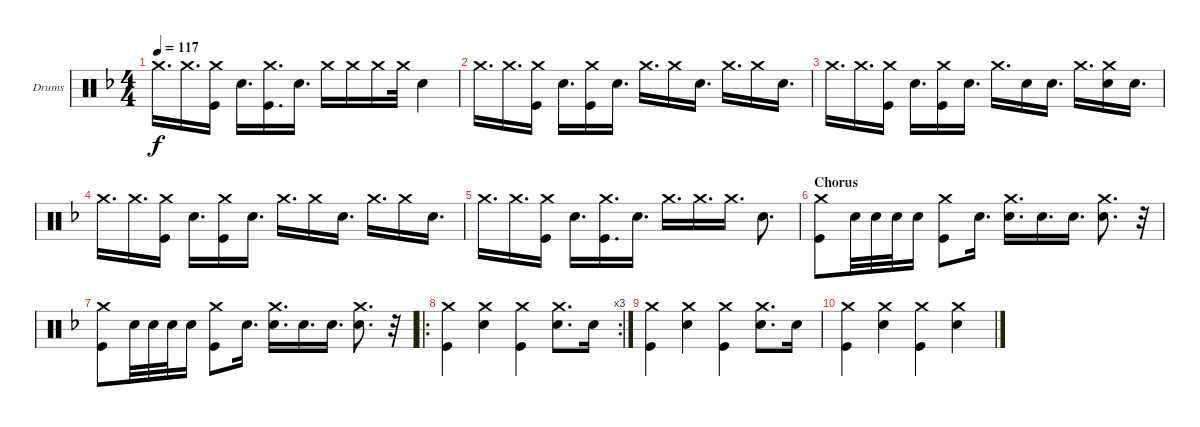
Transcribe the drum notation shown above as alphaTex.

\defaultSystemsLayout 4
\bracketExtendMode groupsimilarinstruments
\firstSystemTrackNameOrientation horizontal
\otherSystemsTrackNameOrientation horizontal
\track ("Drumkit" "Drums") {instrument percussion}
\staff {score}
\articulation defaults
\ts (4 4)
\tempo 117
\clef neutral
\ks f "Crash medium (hit)".16{d dy f} "Crash medium (hit)".16{d}
("Crash medium (hit)" "Kick (hit)").16 "Snare (hit) 2".16{d} ("Kick (hit)" "Crash medium (hit)").16{d} "Snare (hit) 2".16{d} "Crash medium (hit)".16 "Crash medium (hit)".16 "Crash medium (hit)".16 "Crash medium (hit)".32 "Snare (hit) 2".4 |
"Crash medium (hit)".16{d} "Crash medium (hit)".16{d} ("Crash medium (hit)" "Kick (hit)").16 "Snare (hit) 2".16{d} ("Crash medium (hit)" "Kick (hit)").16 "Snare (hit) 2".16{d} "Crash medium (hit)".16{d} "Crash medium (hit)".16 "Snare (hit) 2".16{d} "Crash medium (hit)".16{d} "Crash medium (hit)".16 "Snare (hit) 2".16{d} |
"Crash medium (hit)".16{d} "Crash medium (hit)".16{d} ("Crash medium (hit)" "Kick (hit)").16 "Snare (hit) 2".16{d} ("Crash medium (hit)" "Kick (hit)").16 "Snare (hit) 2".16{d} "Crash medium (hit)".16{d} "Snare (hit) 2".16 "Snare (hit) 2".16{d} "Crash medium (hit)".16{d} ("Crash medium (hit)" "Snare (hit) 2").16 "Snare (hit) 2".16{d} |
"Crash medium (hit)".16{d} "Crash medium (hit)".16{d} ("Crash medium (hit)" "Kick (hit)").16 "Snare (hit) 2".16{d} ("Crash medium (hit)" "Kick (hit)").16 "Snare (hit) 2".16{d} "Crash medium (hit)".16{d} "Crash medium (hit)".16 "Snare (hit) 2".16{d} "Crash medium (hit)".16{d} "Crash medium (hit)".16 "Snare (hit) 2".16{d} |
"Crash medium (hit)".16{d} "Crash medium (hit)".16{d} ("Crash medium (hit)" "Kick (hit)").16 "Snare (hit) 2".16{d} ("Kick (hit)" "Crash medium (hit)").16{d} "Snare (hit) 2".16{d} "Crash medium (hit)".16{d} "Crash medium (hit)".16{d} "Crash medium (hit)".16{d} "Snare (hit) 2".8{d} |
\section ("" "Chorus")
("Crash medium (hit)" "Kick (hit)").8 "Snare (hit) 2".32 "Snare (hit) 2".32 "Snare (hit) 2".32 "Snare (hit) 2".16 ("Kick (hit)" "Crash medium (hit)").8 "Snare (hit) 2".16{d} ("Snare (hit) 2" "Crash medium (hit)").16{d} "Snare (hit) 2".16{d} "Snare (hit) 2".16{d} ("Snare (hit) 2" "Crash medium (hit)").8{d} r.32 |
("Crash medium (hit)" "Kick (hit)").8 "Snare (hit) 2".32 "Snare (hit) 2".32 "Snare (hit) 2".32 "Snare (hit) 2".16 ("Kick (hit)" "Crash medium (hit)").8 "Snare (hit) 2".16{d} ("Snare (hit) 2" "Crash medium (hit)").16{d} "Snare (hit) 2".16{d} "Snare (hit) 2".16{d} ("Snare (hit) 2" "Crash medium (hit)").8{d} r.32 |
\ro
\rc 3
("Crash medium (hit)" "Kick (hit)").4 ("Snare (hit) 2" "Crash medium (hit)").4 ("Crash medium (hit)" "Kick (hit)").4 ("Crash medium (hit)" "Snare (hit) 2").8{d} "Snare (hit) 2".16 |
("Crash medium (hit)" "Kick (hit)").4 ("Snare (hit) 2" "Crash medium (hit)").4 ("Crash medium (hit)" "Kick (hit)").4 ("Crash medium (hit)" "Snare (hit) 2").8{d} "Snare (hit) 2".16 |
("Crash medium (hit)" "Kick (hit)").4 ("Snare (hit) 2" "Crash medium (hit)").4 ("Crash medium (hit)" "Kick (hit)").4 ("Crash medium (hit)" "Snare (hit) 2").4
